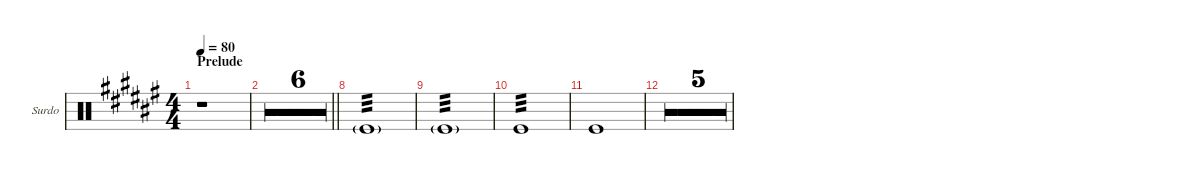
\defaultSystemsLayout 4
\hideDynamics
\bracketExtendMode groupsimilarinstruments
\multiBarRest
\firstSystemTrackNameOrientation horizontal
\otherSystemsTrackNameOrientation horizontal
\track ("Surdo" "Surdo") {multiBarRest instrument percussion}
\staff {score}
\articulation defaults
\ts (4 4)
\section ("" "Prelude")
\tempo 80
\clef neutral
\ks f#
r.1{dy f} |
\barLineRight lightlight
r.1 |
r.1 |
r.1 |
r.1 |
r.1 |
r.1 |
"Kick (hit)"{g}.1{tp 3} |
"Kick (hit)"{g}.1{tp 3} |
"Kick (hit)".1{tp 3} |
"Kick (hit)".1 |
r.1 |
r.1 |
r.1 |
r.1 |
r.1
